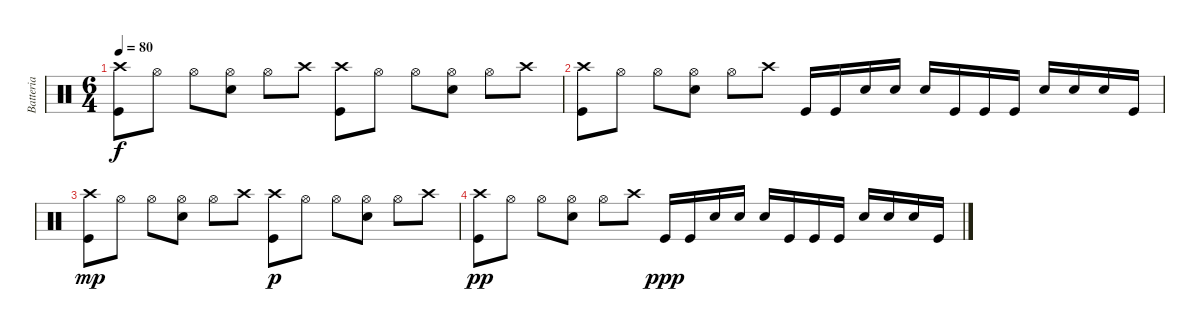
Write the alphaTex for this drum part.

\track ("Batteria" "Batteria") {instrument percussion}
\staff {score}
\articulation defaults
\ts (6 4)
\tempo 80
\clef neutral
\ks c
("Kick (hit)" "Crash high (hit)").8{dy f} "Hi-Hat (open)".8 "Hi-Hat (open)".8 ("Snare (hit) 2" "Hi-Hat (open)").8 "Hi-Hat (open)".8 "Crash high (hit)".8 ("Kick (hit)" "Crash high (hit)").8 "Hi-Hat (open)".8 "Hi-Hat (open)".8 ("Snare (hit) 2" "Hi-Hat (open)").8 "Hi-Hat (open)".8 "Crash high (hit)".8 |
("Kick (hit)" "Crash high (hit)").8 "Hi-Hat (open)".8 "Hi-Hat (open)".8 ("Snare (hit) 2" "Hi-Hat (open)").8 "Hi-Hat (open)".8 "Crash high (hit)".8 "Kick (hit)".16 "Kick (hit)".16 "Snare (hit) 2".16 "Snare (hit) 2".16 "Snare (hit) 2".16 "Kick (hit)".16 "Kick (hit)".16 "Kick (hit)".16 "Snare (hit) 2".16 "Snare (hit) 2".16 "Snare (hit) 2".16 "Kick (hit)".16 |
("Kick (hit)" "Crash high (hit)").8{dy mp} "Hi-Hat (open)".8 "Hi-Hat (open)".8 ("Snare (hit) 2" "Hi-Hat (open)").8 "Hi-Hat (open)".8 "Crash high (hit)".8 ("Kick (hit)" "Crash high (hit)").8{dy p} "Hi-Hat (open)".8 "Hi-Hat (open)".8 ("Snare (hit) 2" "Hi-Hat (open)").8 "Hi-Hat (open)".8 "Crash high (hit)".8 |
("Kick (hit)" "Crash high (hit)").8{dy pp} "Hi-Hat (open)".8 "Hi-Hat (open)".8 ("Snare (hit) 2" "Hi-Hat (open)").8 "Hi-Hat (open)".8 "Crash high (hit)".8 "Kick (hit)".16{dy ppp} "Kick (hit)".16 "Snare (hit) 2".16 "Snare (hit) 2".16 "Snare (hit) 2".16 "Kick (hit)".16 "Kick (hit)".16 "Kick (hit)".16 "Snare (hit) 2".16 "Snare (hit) 2".16 "Snare (hit) 2".16 "Kick (hit)".16
